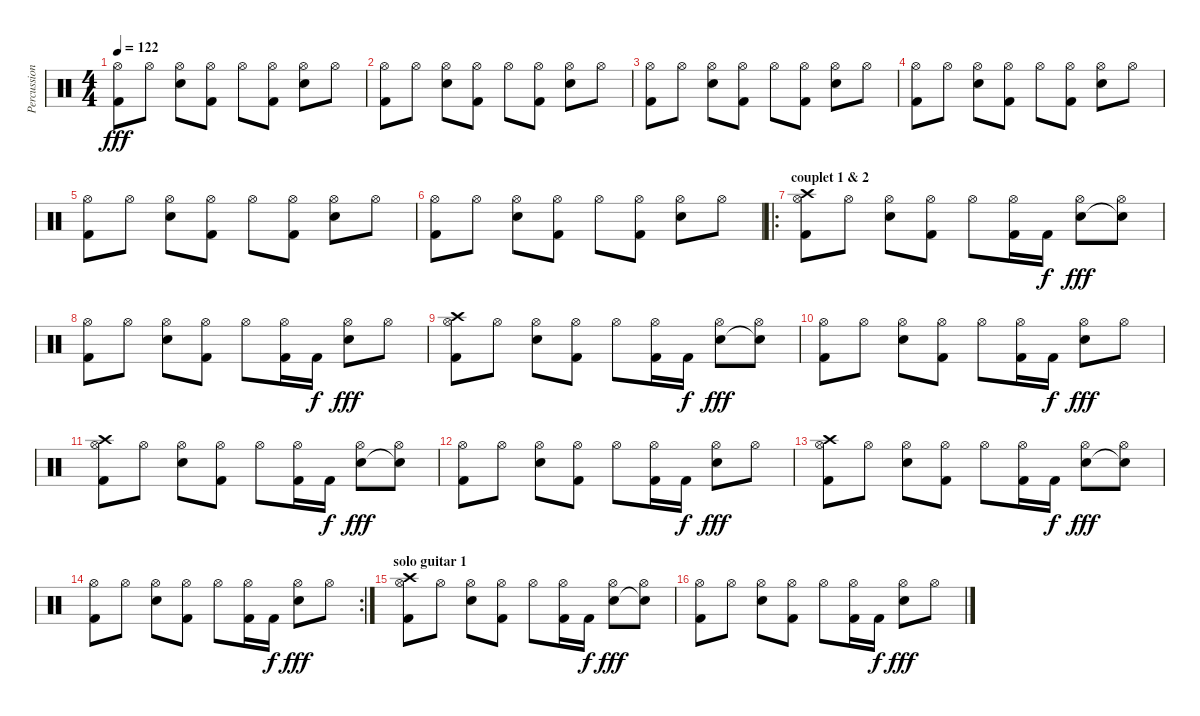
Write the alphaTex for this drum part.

\track ("Percussions" "Percussion") {instrument percussion}
\staff {score}
\articulation defaults
\ts (4 4)
\tempo 122
\clef neutral
\ks c
("Hi-Hat (open)" "Kick (hit) 2").8{dy fff} "Hi-Hat (open)".8 ("Hi-Hat (open)" "Electric Snare (hit)").8 ("Hi-Hat (open)" "Kick (hit) 2").8 "Hi-Hat (open)".8 ("Hi-Hat (open)" "Kick (hit) 2").8 ("Hi-Hat (open)" "Electric Snare (hit)").8 "Hi-Hat (open)".8 |
("Hi-Hat (open)" "Kick (hit) 2").8 "Hi-Hat (open)".8 ("Hi-Hat (open)" "Electric Snare (hit)").8 ("Hi-Hat (open)" "Kick (hit) 2").8 "Hi-Hat (open)".8 ("Hi-Hat (open)" "Kick (hit) 2").8 ("Hi-Hat (open)" "Electric Snare (hit)").8 "Hi-Hat (open)".8 |
("Hi-Hat (open)" "Kick (hit) 2").8 "Hi-Hat (open)".8 ("Hi-Hat (open)" "Electric Snare (hit)").8 ("Hi-Hat (open)" "Kick (hit) 2").8 "Hi-Hat (open)".8 ("Hi-Hat (open)" "Kick (hit) 2").8 ("Hi-Hat (open)" "Electric Snare (hit)").8 "Hi-Hat (open)".8 |
("Hi-Hat (open)" "Kick (hit) 2").8 "Hi-Hat (open)".8 ("Hi-Hat (open)" "Electric Snare (hit)").8 ("Hi-Hat (open)" "Kick (hit) 2").8 "Hi-Hat (open)".8 ("Hi-Hat (open)" "Kick (hit) 2").8 ("Hi-Hat (open)" "Electric Snare (hit)").8 "Hi-Hat (open)".8 |
("Hi-Hat (open)" "Kick (hit) 2").8 "Hi-Hat (open)".8 ("Hi-Hat (open)" "Electric Snare (hit)").8 ("Hi-Hat (open)" "Kick (hit) 2").8 "Hi-Hat (open)".8 ("Hi-Hat (open)" "Kick (hit) 2").8 ("Hi-Hat (open)" "Electric Snare (hit)").8 "Hi-Hat (open)".8 |
("Hi-Hat (open)" "Kick (hit) 2").8 "Hi-Hat (open)".8 ("Hi-Hat (open)" "Electric Snare (hit)").8 ("Hi-Hat (open)" "Kick (hit) 2").8 "Hi-Hat (open)".8 ("Hi-Hat (open)" "Kick (hit) 2").8 ("Hi-Hat (open)" "Electric Snare (hit)").8 "Hi-Hat (open)".8 |
\ro
\section ("" "couplet 1 & 2")
("Hi-Hat (open)" "Crash high (hit)" "Kick (hit) 2").8 "Hi-Hat (open)".8 ("Hi-Hat (open)" "Electric Snare (hit)").8 ("Hi-Hat (open)" "Kick (hit) 2").8 "Hi-Hat (open)".8 ("Hi-Hat (open)" "Kick (hit) 2").16 "Kick (hit) 2".16{dy f} ("Hi-Hat (open)" "Electric Snare (hit)").8{dy fff} ("Hi-Hat (open)" "Snare (hit)"{t}).8 |
("Hi-Hat (open)" "Kick (hit) 2").8 "Hi-Hat (open)".8 ("Hi-Hat (open)" "Electric Snare (hit)").8 ("Hi-Hat (open)" "Kick (hit) 2").8 "Hi-Hat (open)".8 ("Hi-Hat (open)" "Kick (hit) 2").16 "Kick (hit) 2".16{dy f} ("Hi-Hat (open)" "Electric Snare (hit)").8{dy fff} "Hi-Hat (open)".8 |
("Hi-Hat (open)" "Crash high (hit)" "Kick (hit) 2").8 "Hi-Hat (open)".8 ("Hi-Hat (open)" "Electric Snare (hit)").8 ("Hi-Hat (open)" "Kick (hit) 2").8 "Hi-Hat (open)".8 ("Hi-Hat (open)" "Kick (hit) 2").16 "Kick (hit) 2".16{dy f} ("Hi-Hat (open)" "Electric Snare (hit)").8{dy fff} ("Hi-Hat (open)" "Snare (hit)"{t}).8 |
("Hi-Hat (open)" "Kick (hit) 2").8 "Hi-Hat (open)".8 ("Hi-Hat (open)" "Electric Snare (hit)").8 ("Hi-Hat (open)" "Kick (hit) 2").8 "Hi-Hat (open)".8 ("Hi-Hat (open)" "Kick (hit) 2").16 "Kick (hit) 2".16{dy f} ("Hi-Hat (open)" "Electric Snare (hit)").8{dy fff} "Hi-Hat (open)".8 |
("Hi-Hat (open)" "Crash high (hit)" "Kick (hit) 2").8 "Hi-Hat (open)".8 ("Hi-Hat (open)" "Electric Snare (hit)").8 ("Hi-Hat (open)" "Kick (hit) 2").8 "Hi-Hat (open)".8 ("Hi-Hat (open)" "Kick (hit) 2").16 "Kick (hit) 2".16{dy f} ("Hi-Hat (open)" "Electric Snare (hit)").8{dy fff} ("Hi-Hat (open)" "Snare (hit)"{t}).8 |
("Hi-Hat (open)" "Kick (hit) 2").8 "Hi-Hat (open)".8 ("Hi-Hat (open)" "Electric Snare (hit)").8 ("Hi-Hat (open)" "Kick (hit) 2").8 "Hi-Hat (open)".8 ("Hi-Hat (open)" "Kick (hit) 2").16 "Kick (hit) 2".16{dy f} ("Hi-Hat (open)" "Electric Snare (hit)").8{dy fff} "Hi-Hat (open)".8 |
("Hi-Hat (open)" "Crash high (hit)" "Kick (hit) 2").8 "Hi-Hat (open)".8 ("Hi-Hat (open)" "Electric Snare (hit)").8 ("Hi-Hat (open)" "Kick (hit) 2").8 "Hi-Hat (open)".8 ("Hi-Hat (open)" "Kick (hit) 2").16 "Kick (hit) 2".16{dy f} ("Hi-Hat (open)" "Electric Snare (hit)").8{dy fff} ("Hi-Hat (open)" "Snare (hit)"{t}).8 |
\rc 2
("Hi-Hat (open)" "Kick (hit) 2").8 "Hi-Hat (open)".8 ("Hi-Hat (open)" "Electric Snare (hit)").8 ("Hi-Hat (open)" "Kick (hit) 2").8 "Hi-Hat (open)".8 ("Hi-Hat (open)" "Kick (hit) 2").16 "Kick (hit) 2".16{dy f} ("Hi-Hat (open)" "Electric Snare (hit)").8{dy fff} "Hi-Hat (open)".8 |
\section ("" "solo guitar 1")
("Hi-Hat (open)" "Crash high (hit)" "Kick (hit) 2").8 "Hi-Hat (open)".8 ("Hi-Hat (open)" "Electric Snare (hit)").8 ("Hi-Hat (open)" "Kick (hit) 2").8 "Hi-Hat (open)".8 ("Hi-Hat (open)" "Kick (hit) 2").16 "Kick (hit) 2".16{dy f} ("Hi-Hat (open)" "Electric Snare (hit)").8{dy fff} ("Hi-Hat (open)" "Snare (hit)"{t}).8 |
("Hi-Hat (open)" "Kick (hit) 2").8 "Hi-Hat (open)".8 ("Hi-Hat (open)" "Electric Snare (hit)").8 ("Hi-Hat (open)" "Kick (hit) 2").8 "Hi-Hat (open)".8 ("Hi-Hat (open)" "Kick (hit) 2").16 "Kick (hit) 2".16{dy f} ("Hi-Hat (open)" "Electric Snare (hit)").8{dy fff} "Hi-Hat (open)".8
